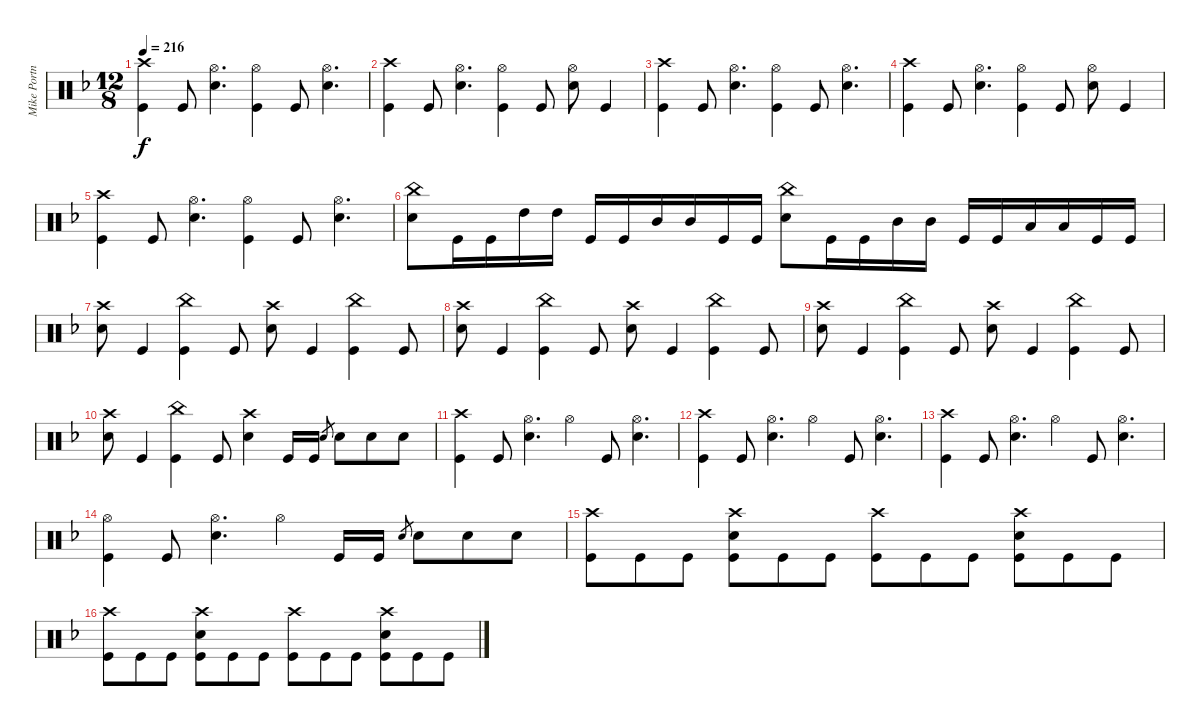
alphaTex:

\track ("Mike Portnoy - Drums" "Mike Portn") {instrument percussion}
\staff {score}
\articulation defaults
\ts (12 8)
\tempo 216
\clef neutral
\ks dminor
("Crash high (hit)" "Kick (hit)").4{dy f} "Kick (hit)".8 ("Hi-Hat (open)" "Snare (hit) 2").4{d} ("Hi-Hat (open)" "Kick (hit)").4 "Kick (hit)".8 ("Hi-Hat (open)" "Snare (hit) 2").4{d} |
("Crash high (hit)" "Kick (hit)").4 "Kick (hit)".8 ("Hi-Hat (open)" "Snare (hit) 2").4{d} ("Hi-Hat (open)" "Kick (hit)").4 "Kick (hit)".8 ("Hi-Hat (open)" "Snare (hit) 2").8 "Kick (hit)".4 |
("Crash high (hit)" "Kick (hit)").4 "Kick (hit)".8 ("Hi-Hat (open)" "Snare (hit) 2").4{d} ("Hi-Hat (open)" "Kick (hit)").4 "Kick (hit)".8 ("Hi-Hat (open)" "Snare (hit) 2").4{d} |
("Crash high (hit)" "Kick (hit)").4 "Kick (hit)".8 ("Hi-Hat (open)" "Snare (hit) 2").4{d} ("Hi-Hat (open)" "Kick (hit)").4 "Kick (hit)".8 ("Hi-Hat (open)" "Snare (hit) 2").8 "Kick (hit)".4 |
("Crash high (hit)" "Kick (hit)").4 "Kick (hit)".8 ("Hi-Hat (open)" "Snare (hit) 2").4{d} ("Hi-Hat (open)" "Kick (hit)").4 "Kick (hit)".8 ("Hi-Hat (open)" "Snare (hit) 2").4{d} |
("China (hit)" "Snare (hit) 2").8 "Kick (hit)".16 "Kick (hit)".16 "High Tom (hit)".16 "High Tom (hit)".16 "Kick (hit)".16 "Kick (hit)".16 "Mid Tom (hit)".16 "Mid Tom (hit)".16 "Kick (hit)".16 "Kick (hit)".16 ("China (hit)" "Snare (hit) 2").8 "Kick (hit)".16 "Kick (hit)".16 "Mid Tom (hit)".16 "Mid Tom (hit)".16 "Kick (hit)".16 "Kick (hit)".16 "Low Tom (hit)".16 "Low Tom (hit)".16 "Kick (hit)".16 "Kick (hit)".16 |
("Crash high (hit)" "Snare (hit) 2").8 "Kick (hit)".4 ("China (hit)" "Kick (hit)").4 "Kick (hit)".8 ("Crash high (hit)" "Snare (hit) 2").8 "Kick (hit)".4 ("China (hit)" "Kick (hit)").4 "Kick (hit)".8 |
("Crash high (hit)" "Snare (hit) 2").8 "Kick (hit)".4 ("China (hit)" "Kick (hit)").4 "Kick (hit)".8 ("Crash high (hit)" "Snare (hit) 2").8 "Kick (hit)".4 ("China (hit)" "Kick (hit)").4 "Kick (hit)".8 |
("Crash high (hit)" "Snare (hit) 2").8 "Kick (hit)".4 ("China (hit)" "Kick (hit)").4 "Kick (hit)".8 ("Crash high (hit)" "Snare (hit) 2").8 "Kick (hit)".4 ("China (hit)" "Kick (hit)").4 "Kick (hit)".8 |
("Crash high (hit)" "Snare (hit) 2").8 "Kick (hit)".4 ("China (hit)" "Kick (hit)").4 "Kick (hit)".8 ("Crash high (hit)" "Snare (hit) 2").4 "Kick (hit)".16 "Kick (hit)".16 "Snare (hit) 2".8{gr} "Snare (hit) 2".8 "Snare (hit) 2".8 "Snare (hit) 2".8 |
("Crash high (hit)" "Kick (hit)").4 "Kick (hit)".8 ("Hi-Hat (open)" "Snare (hit) 2").4{d} "Hi-Hat (open)".4 "Kick (hit)".8 ("Hi-Hat (open)" "Snare (hit) 2").4{d} |
("Crash high (hit)" "Kick (hit)").4 "Kick (hit)".8 ("Hi-Hat (open)" "Snare (hit) 2").4{d} "Hi-Hat (open)".4 "Kick (hit)".8 ("Hi-Hat (open)" "Snare (hit) 2").4{d} |
("Crash high (hit)" "Kick (hit)").4 "Kick (hit)".8 ("Hi-Hat (open)" "Snare (hit) 2").4{d} "Hi-Hat (open)".4 "Kick (hit)".8 ("Hi-Hat (open)" "Snare (hit) 2").4{d} |
("Hi-Hat (open)" "Kick (hit)").4 "Kick (hit)".8 ("Hi-Hat (open)" "Snare (hit) 2").4{d} "Hi-Hat (open)".4 "Kick (hit)".16 "Kick (hit)".16 "Snare (hit) 2".8{gr} "Snare (hit) 2".8 "Snare (hit) 2".8 "Snare (hit) 2".8 |
("Crash high (hit)" "Kick (hit)").8 "Kick (hit)".8 "Kick (hit)".8 ("Crash high (hit)" "Snare (hit) 2" "Kick (hit)").8 "Kick (hit)".8 "Kick (hit)".8 ("Crash high (hit)" "Kick (hit)").8 "Kick (hit)".8 "Kick (hit)".8 ("Crash high (hit)" "Snare (hit) 2" "Kick (hit)").8 "Kick (hit)".8 "Kick (hit)".8 |
("Crash high (hit)" "Kick (hit)").8 "Kick (hit)".8 "Kick (hit)".8 ("Crash high (hit)" "Snare (hit) 2" "Kick (hit)").8 "Kick (hit)".8 "Kick (hit)".8 ("Crash high (hit)" "Kick (hit)").8 "Kick (hit)".8 "Kick (hit)".8 ("Crash high (hit)" "Snare (hit) 2" "Kick (hit)").8 "Kick (hit)".8 "Kick (hit)".8
